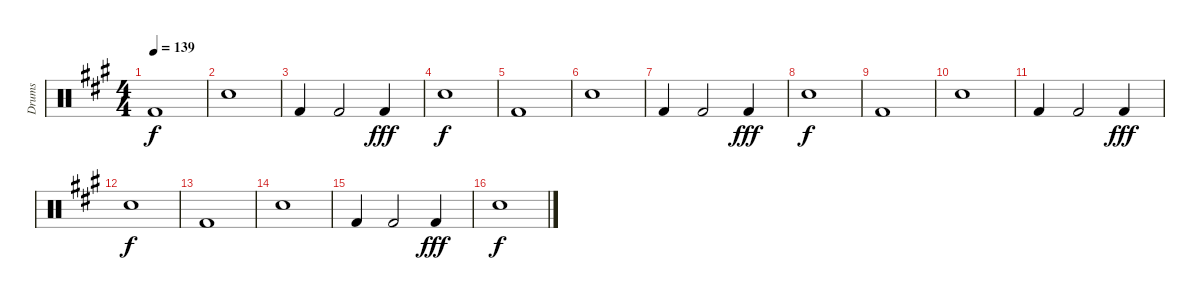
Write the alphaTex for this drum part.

\track ("Drums" "Drums") {instrument percussion}
\staff {score}
\articulation defaults
\ts (4 4)
\tempo 139
\clef neutral
\ks a "Kick (hit) 2".1{dy f}
|
"Electric Snare (hit)".1 |
"Kick (hit) 2".4 "Kick (hit) 2".2 "Kick (hit) 2".4{dy fff} |
"Electric Snare (hit)".1{dy f} |
"Kick (hit) 2".1 |
"Electric Snare (hit)".1 |
"Kick (hit) 2".4 "Kick (hit) 2".2 "Kick (hit) 2".4{dy fff} |
"Electric Snare (hit)".1{dy f} |
"Kick (hit) 2".1 |
"Electric Snare (hit)".1 |
"Kick (hit) 2".4 "Kick (hit) 2".2 "Kick (hit) 2".4{dy fff} |
"Electric Snare (hit)".1{dy f} |
"Kick (hit) 2".1 |
"Electric Snare (hit)".1 |
"Kick (hit) 2".4 "Kick (hit) 2".2 "Kick (hit) 2".4{dy fff} |
"Electric Snare (hit)".1{dy f}
